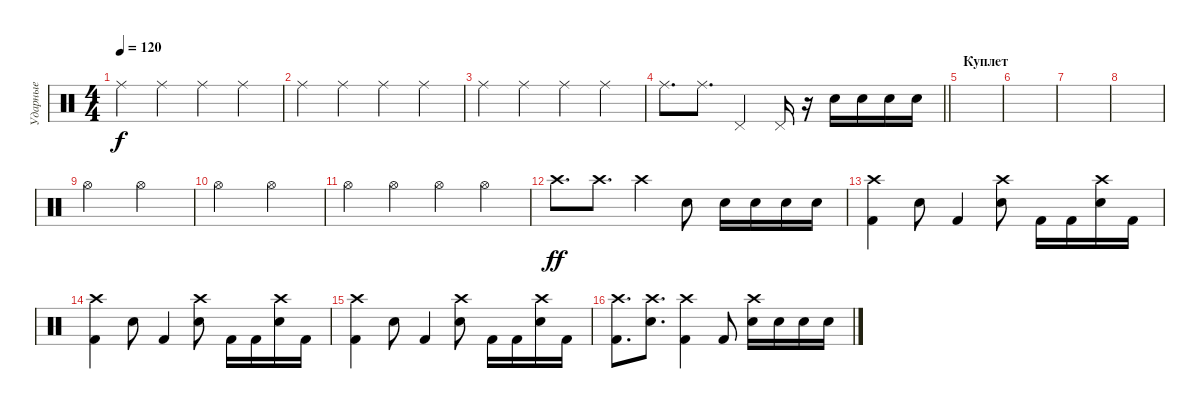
\track ("Ударные" "Ударные") {instrument percussion}
\staff {score}
\articulation defaults
\ts (4 4)
\tempo 120
\clef neutral
\ks c "Ride (middle)".4{dy f} "Ride (middle)".4 "Ride (middle)".4 "Ride (middle)".4
|
"Ride (middle)".4 "Ride (middle)".4 "Ride (middle)".4 "Ride (middle)".4 |
"Ride (middle)".4 "Ride (middle)".4 "Ride (middle)".4 "Ride (middle)".4 |
\barLineRight lightlight "Ride (middle)".8{d} "Ride (middle)".8{d} "Pedal Hi-Hat (hit)".4 "Pedal Hi-Hat (hit)".16
r.16 "Snare (hit) 2".16 "Snare (hit) 2".16 "Snare (hit) 2".16 "Snare (hit) 2".16 |
\section ("" "Куплет")
|
|
|
|
"Hi-Hat (open)".2 "Hi-Hat (open)".2 |
"Hi-Hat (open)".2 "Hi-Hat (open)".2 |
"Hi-Hat (open)".4 "Hi-Hat (open)".4 "Hi-Hat (open)".4 "Hi-Hat (open)".4 |
"Crash high (hit)".8{d dy ff} "Crash high (hit)".8{d} "Crash high (hit)".4 "Snare (hit) 2".8 "Snare (hit) 2".16 "Snare (hit) 2".16 "Snare (hit) 2".16 "Snare (hit) 2".16 |
("Crash high (hit)" "Kick (hit) 2").4 "Snare (hit) 2".8 "Kick (hit) 2".4 ("Crash high (hit)" "Snare (hit) 2").8 "Kick (hit) 2".16 "Kick (hit) 2".16 ("Crash high (hit)" "Snare (hit) 2").16 "Kick (hit) 2".16 |
("Crash high (hit)" "Kick (hit) 2").4 "Snare (hit) 2".8 "Kick (hit) 2".4 ("Crash high (hit)" "Snare (hit) 2").8 "Kick (hit) 2".16 "Kick (hit) 2".16 ("Crash high (hit)" "Snare (hit) 2").16 "Kick (hit) 2".16 |
("Crash high (hit)" "Kick (hit) 2").4 "Snare (hit) 2".8 "Kick (hit) 2".4 ("Crash high (hit)" "Snare (hit) 2").8 "Kick (hit) 2".16 "Kick (hit) 2".16 ("Crash high (hit)" "Snare (hit) 2").16 "Kick (hit) 2".16 |
("Crash high (hit)" "Kick (hit) 2").8{d} ("Crash high (hit)" "Snare (hit) 2").8{d} ("Crash high (hit)" "Kick (hit) 2").4 "Kick (hit) 2".8 ("Crash high (hit)" "Snare (hit) 2").16 "Snare (hit) 2".16 "Snare (hit) 2".16 "Snare (hit) 2".16
